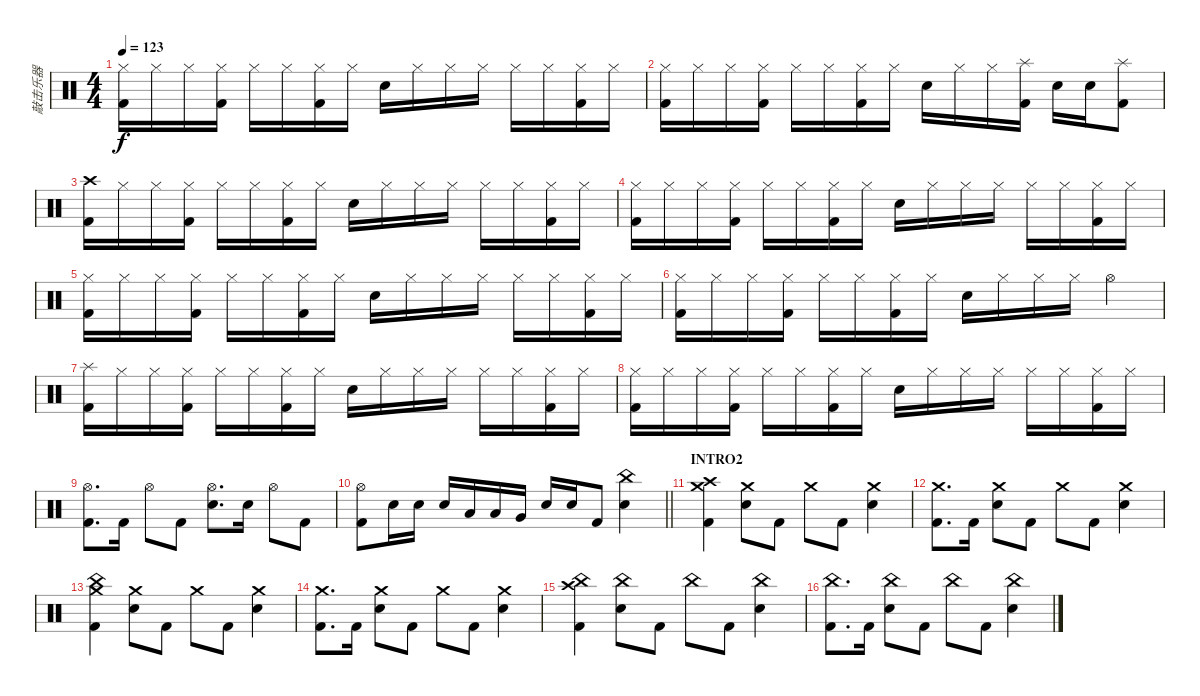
\track ("敲击乐器" "敲击乐器") {instrument percussion}
\staff {score}
\articulation defaults
\ts (4 4)
\tempo 123
\clef neutral
\ks c
("Hi-Hat (closed)" "Kick (hit) 2").16{dy f} "Hi-Hat (closed)".16 "Hi-Hat (closed)".16 ("Hi-Hat (closed)" "Kick (hit) 2").16 "Hi-Hat (closed)".16 "Hi-Hat (closed)".16 ("Hi-Hat (closed)" "Kick (hit) 2").16 "Hi-Hat (closed)".16 "Electric Snare (hit)".16 "Hi-Hat (closed)".16 "Hi-Hat (closed)".16 "Hi-Hat (closed)".16 "Hi-Hat (closed)".16 "Hi-Hat (closed)".16 ("Hi-Hat (closed)" "Kick (hit) 2").16 "Hi-Hat (closed)".16 |
("Hi-Hat (closed)" "Kick (hit) 2").16 "Hi-Hat (closed)".16 "Hi-Hat (closed)".16 ("Hi-Hat (closed)" "Kick (hit) 2").16 "Hi-Hat (closed)".16 "Hi-Hat (closed)".16 ("Hi-Hat (closed)" "Kick (hit) 2").16 "Hi-Hat (closed)".16 "Electric Snare (hit)".16 "Hi-Hat (closed)".16 "Hi-Hat (closed)".16 ("Splash (hit)" "Kick (hit) 2").16 "Electric Snare (hit)".16 "Electric Snare (hit)".16 ("Splash (hit)" "Kick (hit) 2").8 |
("Crash high (hit)" "Kick (hit) 2").16 "Hi-Hat (closed)".16 "Hi-Hat (closed)".16 ("Hi-Hat (closed)" "Kick (hit) 2").16 "Hi-Hat (closed)".16 "Hi-Hat (closed)".16 ("Hi-Hat (closed)" "Kick (hit) 2").16 "Hi-Hat (closed)".16 "Electric Snare (hit)".16 "Hi-Hat (closed)".16 "Hi-Hat (closed)".16 "Hi-Hat (closed)".16 "Hi-Hat (closed)".16 "Hi-Hat (closed)".16 ("Hi-Hat (closed)" "Kick (hit) 2").16 "Hi-Hat (closed)".16 |
("Hi-Hat (closed)" "Kick (hit) 2").16 "Hi-Hat (closed)".16 "Hi-Hat (closed)".16 ("Hi-Hat (closed)" "Kick (hit) 2").16 "Hi-Hat (closed)".16 "Hi-Hat (closed)".16 ("Hi-Hat (closed)" "Kick (hit) 2").16 "Hi-Hat (closed)".16 "Electric Snare (hit)".16 "Hi-Hat (closed)".16 "Hi-Hat (closed)".16 "Hi-Hat (closed)".16 "Hi-Hat (closed)".16 "Hi-Hat (closed)".16 ("Hi-Hat (closed)" "Kick (hit) 2").16 "Hi-Hat (closed)".16 |
("Hi-Hat (closed)" "Kick (hit) 2").16 "Hi-Hat (closed)".16 "Hi-Hat (closed)".16 ("Hi-Hat (closed)" "Kick (hit) 2").16 "Hi-Hat (closed)".16 "Hi-Hat (closed)".16 ("Hi-Hat (closed)" "Kick (hit) 2").16 "Hi-Hat (closed)".16 "Electric Snare (hit)".16 "Hi-Hat (closed)".16 "Hi-Hat (closed)".16 "Hi-Hat (closed)".16 "Hi-Hat (closed)".16 "Hi-Hat (closed)".16 ("Hi-Hat (closed)" "Kick (hit) 2").16 "Hi-Hat (closed)".16 |
("Hi-Hat (closed)" "Kick (hit) 2").16 "Hi-Hat (closed)".16 "Hi-Hat (closed)".16 ("Hi-Hat (closed)" "Kick (hit) 2").16 "Hi-Hat (closed)".16 "Hi-Hat (closed)".16 ("Hi-Hat (closed)" "Kick (hit) 2").16 "Hi-Hat (closed)".16 "Electric Snare (hit)".16 "Hi-Hat (closed)".16 "Hi-Hat (closed)".16 "Hi-Hat (closed)".16 "Hi-Hat (open)".4 |
("Splash (hit)" "Kick (hit) 2").16 "Hi-Hat (closed)".16 "Hi-Hat (closed)".16 ("Hi-Hat (closed)" "Kick (hit) 2").16 "Hi-Hat (closed)".16 "Hi-Hat (closed)".16 ("Hi-Hat (closed)" "Kick (hit) 2").16 "Hi-Hat (closed)".16 "Electric Snare (hit)".16 "Hi-Hat (closed)".16 "Hi-Hat (closed)".16 "Hi-Hat (closed)".16 "Hi-Hat (closed)".16 "Hi-Hat (closed)".16 ("Hi-Hat (closed)" "Kick (hit) 2").16 "Hi-Hat (closed)".16 |
("Hi-Hat (closed)" "Kick (hit) 2").16 "Hi-Hat (closed)".16 "Hi-Hat (closed)".16 ("Hi-Hat (closed)" "Kick (hit) 2").16 "Hi-Hat (closed)".16 "Hi-Hat (closed)".16 ("Hi-Hat (closed)" "Kick (hit) 2").16 "Hi-Hat (closed)".16 "Electric Snare (hit)".16 "Hi-Hat (closed)".16 "Hi-Hat (closed)".16 "Hi-Hat (closed)".16 "Hi-Hat (closed)".16 "Hi-Hat (closed)".16 ("Hi-Hat (closed)" "Kick (hit) 2").16 "Hi-Hat (closed)".16 |
("Hi-Hat (open)" "Kick (hit) 2").8{d} "Kick (hit) 2".16 "Hi-Hat (open)".8 "Kick (hit) 2".8 ("Hi-Hat (open)" "Electric Snare (hit)").8{d} "Electric Snare (hit)".16 "Hi-Hat (open)".8 "Kick (hit) 2".8 |
\barLineRight lightlight
("Hi-Hat (open)" "Kick (hit) 2").8 "Electric Snare (hit)".16 "Electric Snare (hit)".16 "Electric Snare (hit)".16 "Low Tom (hit)".16 "Low Tom (hit)".16 "Very Low Tom (hit)".16 "Electric Snare (hit)".16 "Electric Snare (hit)".16 "Kick (hit) 2".8 ("China (hit)" "Electric Snare (hit)").4 |
\section ("" "INTRO2")
("Crash high (hit)" "Crash medium (hit)" "Kick (hit) 2").4 ("Crash medium (hit)" "Electric Snare (hit)").8 "Kick (hit) 2".8 "Crash medium (hit)".8 "Kick (hit) 2".8 ("Crash medium (hit)" "Electric Snare (hit)").4 |
("Crash medium (hit)" "Kick (hit) 2").8{d} "Kick (hit) 2".16 ("Crash medium (hit)" "Electric Snare (hit)").8 "Kick (hit) 2".8 "Crash medium (hit)".8 "Kick (hit) 2".8 ("Crash medium (hit)" "Electric Snare (hit)").4 |
("China (hit)" "Crash medium (hit)" "Kick (hit) 2").4 ("Crash medium (hit)" "Electric Snare (hit)").8 "Kick (hit) 2".8 "Crash medium (hit)".8 "Kick (hit) 2".8 ("Crash medium (hit)" "Electric Snare (hit)").4 |
("Crash medium (hit)" "Kick (hit) 2").8{d} "Kick (hit) 2".16 ("Crash medium (hit)" "Electric Snare (hit)").8 "Kick (hit) 2".8 "Crash medium (hit)".8 "Kick (hit) 2".8 ("Crash medium (hit)" "Electric Snare (hit)").4 |
("Crash high (hit)" "China (hit)" "Kick (hit) 2").4 ("China (hit)" "Electric Snare (hit)").8 "Kick (hit) 2".8 "China (hit)".8 "Kick (hit) 2".8 ("China (hit)" "Electric Snare (hit)").4 |
("China (hit)" "Kick (hit) 2").8{d} "Kick (hit) 2".16 ("China (hit)" "Electric Snare (hit)").8 "Kick (hit) 2".8 "China (hit)".8 "Kick (hit) 2".8 ("China (hit)" "Electric Snare (hit)").4
